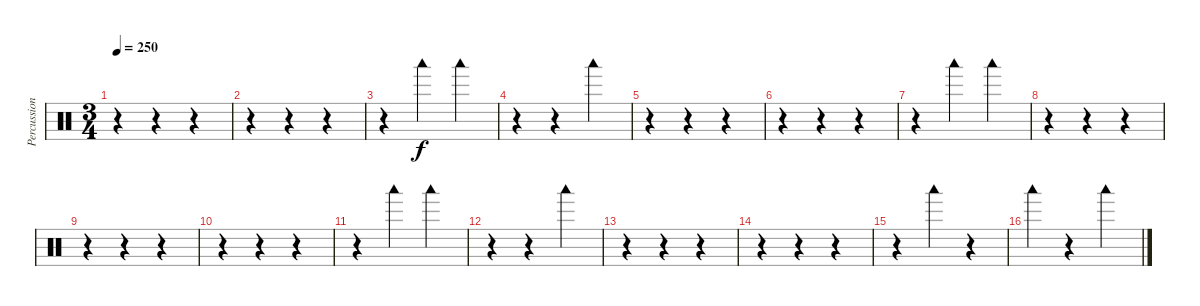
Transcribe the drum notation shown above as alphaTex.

\track ("Percussions" "Percussion") {instrument percussion}
\staff {score}
\articulation defaults
\ts (3 4)
\tempo 250
\clef neutral
\ks c
r.4{dy f} r.4 r.4 |
r.4 r.4 r.4 |
r.4 "Woodblock low (hit)".4 "Woodblock low (hit)".4 |
r.4 r.4 "Woodblock low (hit)".4 |
r.4 r.4 r.4 |
r.4 r.4 r.4 |
r.4 "Woodblock low (hit)".4 "Woodblock low (hit)".4 |
r.4 r.4 r.4 |
r.4 r.4 r.4 |
r.4 r.4 r.4 |
r.4 "Woodblock low (hit)".4 "Woodblock low (hit)".4 |
r.4 r.4 "Woodblock low (hit)".4 |
r.4 r.4 r.4 |
r.4 r.4 r.4 |
r.4 "Woodblock low (hit)".4 r.4 |
"Woodblock low (hit)".4 r.4 "Woodblock low (hit)".4
